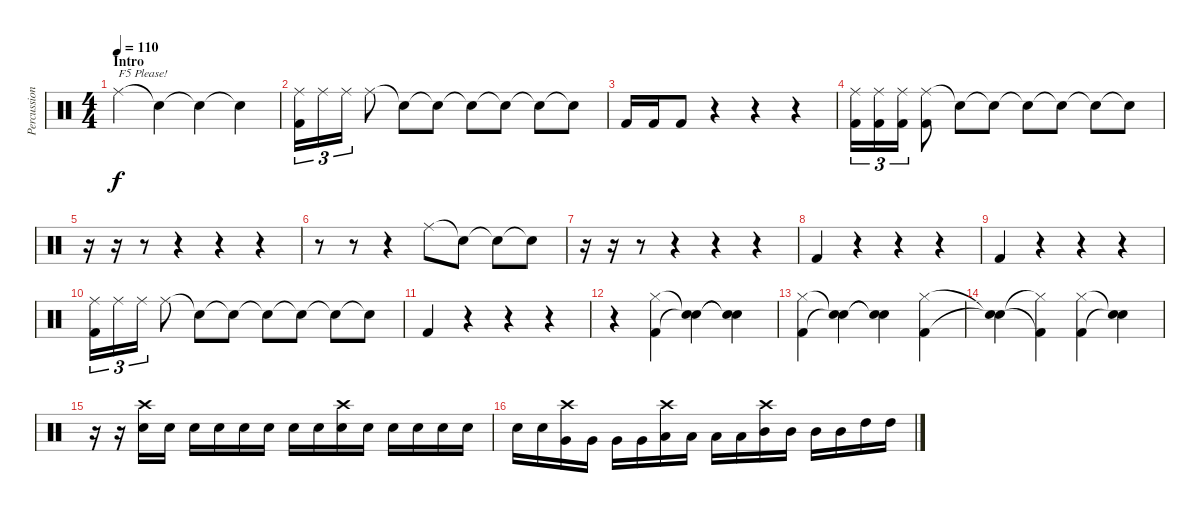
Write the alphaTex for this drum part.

\track ("Percussion" "Percussion") {instrument percussion}
\staff {score}
\articulation defaults
\ts (4 4)
\section ("" "Intro")
\tempo 110
\clef neutral
\ks c "Ride (middle)".4{txt "F5 Please!" dy f} "Snare (hit)"{t}.4 "Snare (hit)"{t}.4 "Snare (hit)"{t}.4
|
("Ride (middle)" "Kick (hit) 2").16{tu (3 2)} "Ride (middle)".16{tu (3 2)} "Ride (middle)".16{tu (3 2)} "Ride (middle)".8 "Snare (hit)"{t}.8 "Snare (hit)"{t}.8 "Snare (hit)"{t}.8 "Snare (hit)"{t}.8 "Snare (hit)"{t}.8 "Snare (hit)"{t}.8 |
"Kick (hit) 2".16 "Kick (hit) 2".16 "Kick (hit) 2".8 r.4 r.4 r.4 |
("Ride (middle)" "Kick (hit) 2").16{tu (3 2)} ("Ride (middle)" "Kick (hit) 2").16{tu (3 2)} ("Ride (middle)" "Kick (hit) 2").16{tu (3 2)} ("Ride (middle)" "Kick (hit) 2").8 "Snare (hit)"{t}.8 "Snare (hit)"{t}.8 "Snare (hit)"{t}.8 "Snare (hit)"{t}.8 "Snare (hit)"{t}.8 "Snare (hit)"{t}.8 |
r.16 r.16 r.8 r.4 r.4 r.4 |
r.8 r.8 r.4 "Ride (middle)".8 "Snare (hit)"{t}.8 "Snare (hit)"{t}.8 "Snare (hit)"{t}.8 |
r.16 r.16 r.8 r.4 r.4 r.4 |
"Kick (hit) 2".4 r.4 r.4 r.4 |
"Kick (hit) 2".4 r.4 r.4 r.4 |
("Ride (middle)" "Kick (hit) 2").16{tu (3 2)} "Ride (middle)".16{tu (3 2)} "Ride (middle)".16{tu (3 2)} "Ride (middle)".8 "Snare (hit)"{t}.8 "Snare (hit)"{t}.8 "Snare (hit)"{t}.8 "Snare (hit)"{t}.8 "Snare (hit)"{t}.8 "Snare (hit)"{t}.8 |
"Kick (hit) 2".4 r.4 r.4 r.4 |
r.4 ("Hi-Hat (closed)" "Kick (hit) 2").4 ("Snare (hit)"{t} "Snare (hit)"{t}).4 ("Snare (hit)"{t} "Snare (hit)"{t}).4 |
("Hi-Hat (closed)" "Kick (hit) 2").4 ("Snare (hit)"{t} "Snare (hit)"{t}).4 ("Snare (hit)"{t} "Snare (hit)"{t}).4 ("Hi-Hat (closed)" "Kick (hit) 2").4 |
("Snare (hit)"{t} "Snare (hit)"{t}).4 ("Hi-Hat (closed)"{t} "Kick (hit) 2"{t}).4 ("Hi-Hat (closed)" "Kick (hit) 2").4 ("Snare (hit)"{t} "Snare (hit)"{t}).4 |
r.16 r.16 ("Crash high (hit)" "Electric Snare (hit)").16 "Electric Snare (hit)".16 "Electric Snare (hit)".16 "Electric Snare (hit)".16 "Electric Snare (hit)".16 "Electric Snare (hit)".16 "Electric Snare (hit)".16 "Electric Snare (hit)".16 ("Crash high (hit)" "Snare (hit) 2").16 "Snare (hit) 2".16 "Snare (hit) 2".16 "Snare (hit) 2".16 "Snare (hit) 2".16 "Snare (hit) 2".16 |
"Snare (hit) 2".16 "Snare (hit) 2".16 ("Crash high (hit)" "Very Low Tom (hit)").16 "Very Low Tom (hit)".16 "Very Low Tom (hit)".16 "Very Low Tom (hit)".16 ("Crash high (hit)" "Low Tom (hit)").16 "Low Tom (hit)".16 "Low Tom (hit)".16 "Low Tom (hit)".16 ("Crash high (hit)" "Mid Tom (hit)").16 "Mid Tom (hit)".16 "Mid Tom (hit)".16 "Mid Tom (hit)".16 "High Tom (hit)".16 "High Tom (hit)".16
